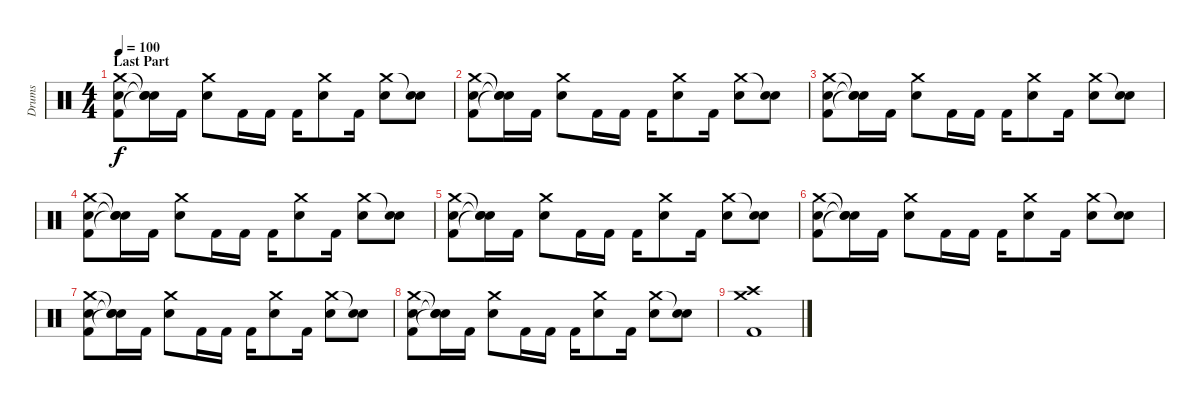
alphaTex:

\track ("Drums" "Drums") {instrument percussion}
\staff {score}
\articulation defaults
\ts (4 4)
\section ("" "Last Part")
\tempo 100
\clef neutral
\ks c
("Crash medium (hit)" "Electric Snare (hit)" "Kick (hit) 2").8{dy f} ("Snare (hit)"{t} "Snare (hit)"{t} "Snare (hit)"{t}).16 "Kick (hit) 2".16 ("Crash medium (hit)" "Electric Snare (hit)").8 "Kick (hit) 2".16 "Kick (hit) 2".16 "Kick (hit) 2".16 ("Crash medium (hit)" "Electric Snare (hit)").8 "Kick (hit) 2".16 ("Crash medium (hit)" "Electric Snare (hit)").8 ("Snare (hit)"{t} "Electric Snare (hit)").8 |
("Crash medium (hit)" "Electric Snare (hit)" "Kick (hit) 2").8 ("Snare (hit)"{t} "Snare (hit)"{t} "Snare (hit)"{t}).16 "Kick (hit) 2".16 ("Crash medium (hit)" "Electric Snare (hit)").8 "Kick (hit) 2".16 "Kick (hit) 2".16 "Kick (hit) 2".16 ("Crash medium (hit)" "Electric Snare (hit)").8 "Kick (hit) 2".16 ("Crash medium (hit)" "Electric Snare (hit)").8 ("Snare (hit)"{t} "Electric Snare (hit)").8 |
("Crash medium (hit)" "Electric Snare (hit)" "Kick (hit) 2").8 ("Snare (hit)"{t} "Snare (hit)"{t} "Snare (hit)"{t}).16 "Kick (hit) 2".16 ("Crash medium (hit)" "Electric Snare (hit)").8 "Kick (hit) 2".16 "Kick (hit) 2".16 "Kick (hit) 2".16 ("Crash medium (hit)" "Electric Snare (hit)").8 "Kick (hit) 2".16 ("Crash medium (hit)" "Electric Snare (hit)").8 ("Snare (hit)"{t} "Electric Snare (hit)").8 |
("Crash medium (hit)" "Electric Snare (hit)" "Kick (hit) 2").8 ("Snare (hit)"{t} "Snare (hit)"{t} "Snare (hit)"{t}).16 "Kick (hit) 2".16 ("Crash medium (hit)" "Electric Snare (hit)").8 "Kick (hit) 2".16 "Kick (hit) 2".16 "Kick (hit) 2".16 ("Crash medium (hit)" "Electric Snare (hit)").8 "Kick (hit) 2".16 ("Crash medium (hit)" "Electric Snare (hit)").8 ("Snare (hit)"{t} "Electric Snare (hit)").8 |
("Crash medium (hit)" "Electric Snare (hit)" "Kick (hit) 2").8 ("Snare (hit)"{t} "Snare (hit)"{t} "Snare (hit)"{t}).16 "Kick (hit) 2".16 ("Crash medium (hit)" "Electric Snare (hit)").8 "Kick (hit) 2".16 "Kick (hit) 2".16 "Kick (hit) 2".16 ("Crash medium (hit)" "Electric Snare (hit)").8 "Kick (hit) 2".16 ("Crash medium (hit)" "Electric Snare (hit)").8 ("Snare (hit)"{t} "Electric Snare (hit)").8 |
("Crash medium (hit)" "Electric Snare (hit)" "Kick (hit) 2").8 ("Snare (hit)"{t} "Snare (hit)"{t} "Snare (hit)"{t}).16 "Kick (hit) 2".16 ("Crash medium (hit)" "Electric Snare (hit)").8 "Kick (hit) 2".16 "Kick (hit) 2".16 "Kick (hit) 2".16 ("Crash medium (hit)" "Electric Snare (hit)").8 "Kick (hit) 2".16 ("Crash medium (hit)" "Electric Snare (hit)").8 ("Snare (hit)"{t} "Electric Snare (hit)").8 |
("Crash medium (hit)" "Electric Snare (hit)" "Kick (hit) 2").8 ("Snare (hit)"{t} "Snare (hit)"{t} "Snare (hit)"{t}).16 "Kick (hit) 2".16 ("Crash medium (hit)" "Electric Snare (hit)").8 "Kick (hit) 2".16 "Kick (hit) 2".16 "Kick (hit) 2".16 ("Crash medium (hit)" "Electric Snare (hit)").8 "Kick (hit) 2".16 ("Crash medium (hit)" "Electric Snare (hit)").8 ("Snare (hit)"{t} "Electric Snare (hit)").8 |
("Crash medium (hit)" "Electric Snare (hit)" "Kick (hit) 2").8 ("Snare (hit)"{t} "Snare (hit)"{t} "Snare (hit)"{t}).16 "Kick (hit) 2".16 ("Crash medium (hit)" "Electric Snare (hit)").8 "Kick (hit) 2".16 "Kick (hit) 2".16 "Kick (hit) 2".16 ("Crash medium (hit)" "Electric Snare (hit)").8 "Kick (hit) 2".16 ("Crash medium (hit)" "Electric Snare (hit)").8 ("Snare (hit)"{t} "Electric Snare (hit)").8 |
("Crash high (hit)" "Crash medium (hit)" "Kick (hit) 2").1
